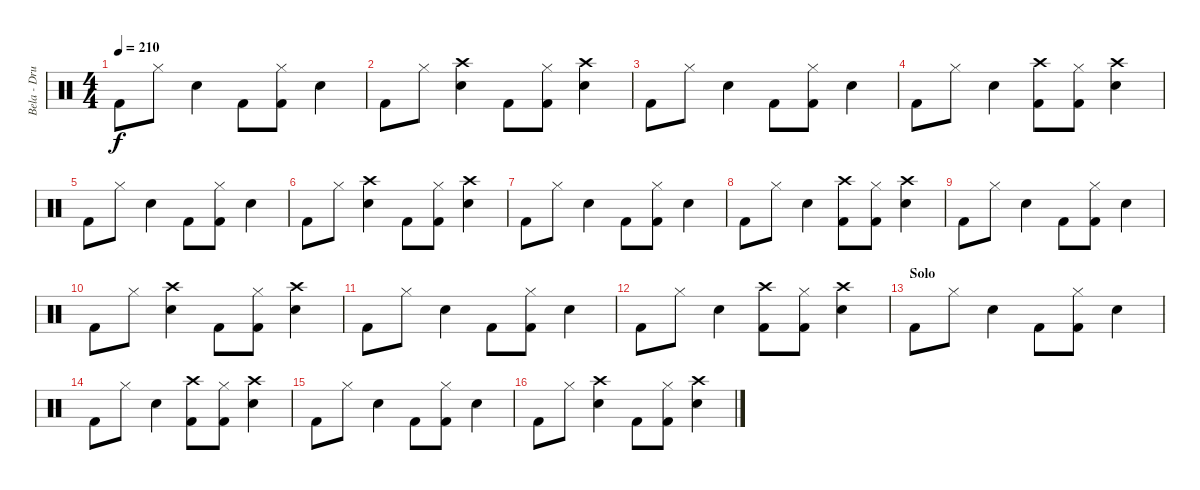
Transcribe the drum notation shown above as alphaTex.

\track ("Bela - Drums" "Bela - Dru") {instrument percussion}
\staff {score}
\articulation defaults
\ts (4 4)
\tempo 210
\clef neutral
\ks c "Kick (hit) 2".8{dy f} "Hi-Hat (closed)".8 "Electric Snare (hit)".4 "Kick (hit) 2".8
("Hi-Hat (closed)" "Kick (hit) 2").8 "Electric Snare (hit)".4 |
"Kick (hit) 2".8 "Hi-Hat (closed)".8 ("Crash high (hit)" "Electric Snare (hit)").4 "Kick (hit) 2".8 ("Hi-Hat (closed)" "Kick (hit) 2").8 ("Crash high (hit)" "Electric Snare (hit)").4 |
"Kick (hit) 2".8 "Hi-Hat (closed)".8 "Electric Snare (hit)".4 "Kick (hit) 2".8 ("Hi-Hat (closed)" "Kick (hit) 2").8 "Electric Snare (hit)".4 |
"Kick (hit) 2".8 "Hi-Hat (closed)".8 "Electric Snare (hit)".4 ("Crash high (hit)" "Kick (hit) 2").8 ("Hi-Hat (closed)" "Kick (hit) 2").8 ("Crash high (hit)" "Electric Snare (hit)").4 |
"Kick (hit) 2".8 "Hi-Hat (closed)".8 "Electric Snare (hit)".4 "Kick (hit) 2".8 ("Hi-Hat (closed)" "Kick (hit) 2").8 "Electric Snare (hit)".4 |
"Kick (hit) 2".8 "Hi-Hat (closed)".8 ("Crash high (hit)" "Electric Snare (hit)").4 "Kick (hit) 2".8 ("Hi-Hat (closed)" "Kick (hit) 2").8 ("Crash high (hit)" "Electric Snare (hit)").4 |
"Kick (hit) 2".8 "Hi-Hat (closed)".8 "Electric Snare (hit)".4 "Kick (hit) 2".8 ("Hi-Hat (closed)" "Kick (hit) 2").8 "Electric Snare (hit)".4 |
"Kick (hit) 2".8 "Hi-Hat (closed)".8 "Electric Snare (hit)".4 ("Crash high (hit)" "Kick (hit) 2").8 ("Hi-Hat (closed)" "Kick (hit) 2").8 ("Crash high (hit)" "Electric Snare (hit)").4 |
"Kick (hit) 2".8 "Hi-Hat (closed)".8 "Electric Snare (hit)".4 "Kick (hit) 2".8 ("Hi-Hat (closed)" "Kick (hit) 2").8 "Electric Snare (hit)".4 |
"Kick (hit) 2".8 "Hi-Hat (closed)".8 ("Crash high (hit)" "Electric Snare (hit)").4 "Kick (hit) 2".8 ("Hi-Hat (closed)" "Kick (hit) 2").8 ("Crash high (hit)" "Electric Snare (hit)").4 |
"Kick (hit) 2".8 "Hi-Hat (closed)".8 "Electric Snare (hit)".4 "Kick (hit) 2".8 ("Hi-Hat (closed)" "Kick (hit) 2").8 "Electric Snare (hit)".4 |
"Kick (hit) 2".8 "Hi-Hat (closed)".8 "Electric Snare (hit)".4 ("Crash high (hit)" "Kick (hit) 2").8 ("Hi-Hat (closed)" "Kick (hit) 2").8 ("Crash high (hit)" "Electric Snare (hit)").4 |
\section ("" "Solo")
"Kick (hit) 2".8 "Hi-Hat (closed)".8 "Electric Snare (hit)".4 "Kick (hit) 2".8 ("Hi-Hat (closed)" "Kick (hit) 2").8 "Electric Snare (hit)".4 |
"Kick (hit) 2".8 "Hi-Hat (closed)".8 "Electric Snare (hit)".4 ("Crash high (hit)" "Kick (hit) 2").8 ("Hi-Hat (closed)" "Kick (hit) 2").8 ("Crash high (hit)" "Electric Snare (hit)").4 |
"Kick (hit) 2".8 "Hi-Hat (closed)".8 "Electric Snare (hit)".4 "Kick (hit) 2".8 ("Hi-Hat (closed)" "Kick (hit) 2").8 "Electric Snare (hit)".4 |
"Kick (hit) 2".8 "Hi-Hat (closed)".8 ("Crash high (hit)" "Electric Snare (hit)").4 "Kick (hit) 2".8 ("Hi-Hat (closed)" "Kick (hit) 2").8 ("Crash high (hit)" "Electric Snare (hit)").4
